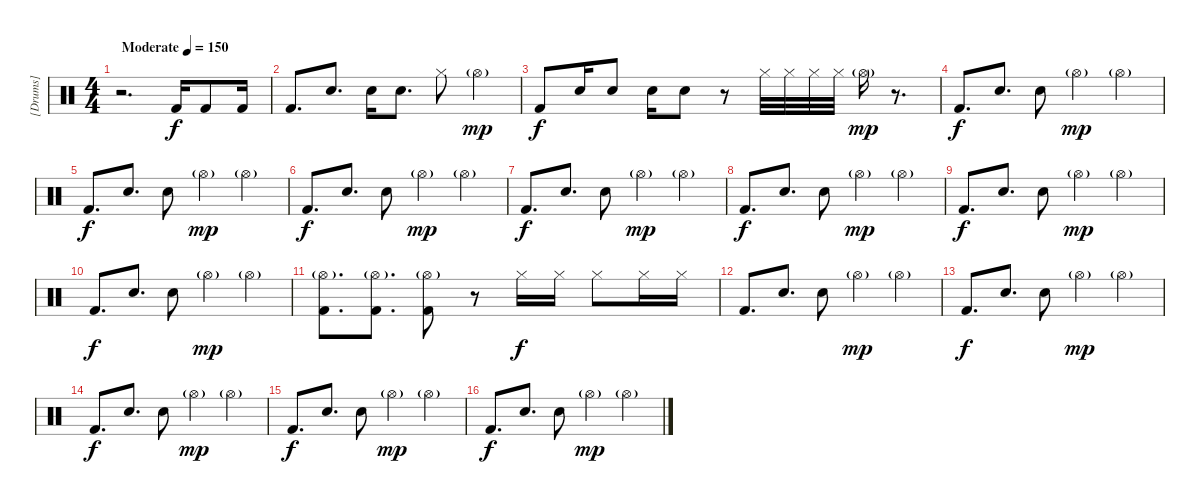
\track ("[Drums]" "[Drums]") {instrument percussion}
\staff {score}
\articulation defaults
\ts (4 4)
\tempo (150 "Moderate")
\clef neutral
\ks c
r.2{d dy f} "Kick (hit) 2".16 "Kick (hit) 2".8 "Kick (hit) 2".16 |
"Kick (hit) 2".8{d} "Electric Snare (hit)".8{d} "Electric Snare (hit)".16 "Electric Snare (hit)".8{d} "Hi-Hat (closed)".8 "Hi-Hat (open)"{g}.4{dy mp} |
"Kick (hit) 2".8{dy f} "Electric Snare (hit)".16 "Electric Snare (hit)".8 "Electric Snare (hit)".16 "Electric Snare (hit)".8 r.8 "Hi-Hat (closed)".32 "Hi-Hat (closed)".32 "Hi-Hat (closed)".32 "Hi-Hat (closed)".32 "Hi-Hat (open)"{g}.16{dy mp} r.8{d} |
"Kick (hit) 2".8{d dy f} "Electric Snare (hit)".8{d} "Electric Snare (hit)".8 "Hi-Hat (open)"{g}.4{dy mp} "Hi-Hat (open)"{g}.4 |
"Kick (hit) 2".8{d dy f} "Electric Snare (hit)".8{d} "Electric Snare (hit)".8 "Hi-Hat (open)"{g}.4{dy mp} "Hi-Hat (open)"{g}.4 |
"Kick (hit) 2".8{d dy f} "Electric Snare (hit)".8{d} "Electric Snare (hit)".8 "Hi-Hat (open)"{g}.4{dy mp} "Hi-Hat (open)"{g}.4 |
"Kick (hit) 2".8{d dy f} "Electric Snare (hit)".8{d} "Electric Snare (hit)".8 "Hi-Hat (open)"{g}.4{dy mp} "Hi-Hat (open)"{g}.4 |
"Kick (hit) 2".8{d dy f} "Electric Snare (hit)".8{d} "Electric Snare (hit)".8 "Hi-Hat (open)"{g}.4{dy mp} "Hi-Hat (open)"{g}.4 |
"Kick (hit) 2".8{d dy f} "Electric Snare (hit)".8{d} "Electric Snare (hit)".8 "Hi-Hat (open)"{g}.4{dy mp} "Hi-Hat (open)"{g}.4 |
"Kick (hit) 2".8{d dy f} "Electric Snare (hit)".8{d} "Electric Snare (hit)".8 "Hi-Hat (open)"{g}.4{dy mp} "Hi-Hat (open)"{g}.4 |
("Hi-Hat (open)"{g} "Kick (hit) 2").8{d} ("Hi-Hat (open)"{g} "Kick (hit) 2").8{d} ("Hi-Hat (open)"{g} "Kick (hit) 2").8 r.8 "Hi-Hat (closed)".16{dy f} "Hi-Hat (closed)".16 "Hi-Hat (closed)".8 "Hi-Hat (closed)".16 "Hi-Hat (closed)".16 |
"Kick (hit) 2".8{d} "Electric Snare (hit)".8{d} "Electric Snare (hit)".8 "Hi-Hat (open)"{g}.4{dy mp} "Hi-Hat (open)"{g}.4 |
"Kick (hit) 2".8{d dy f} "Electric Snare (hit)".8{d} "Electric Snare (hit)".8 "Hi-Hat (open)"{g}.4{dy mp} "Hi-Hat (open)"{g}.4 |
"Kick (hit) 2".8{d dy f} "Electric Snare (hit)".8{d} "Electric Snare (hit)".8 "Hi-Hat (open)"{g}.4{dy mp} "Hi-Hat (open)"{g}.4 |
"Kick (hit) 2".8{d dy f} "Electric Snare (hit)".8{d} "Electric Snare (hit)".8 "Hi-Hat (open)"{g}.4{dy mp} "Hi-Hat (open)"{g}.4 |
"Kick (hit) 2".8{d dy f} "Electric Snare (hit)".8{d} "Electric Snare (hit)".8 "Hi-Hat (open)"{g}.4{dy mp} "Hi-Hat (open)"{g}.4
